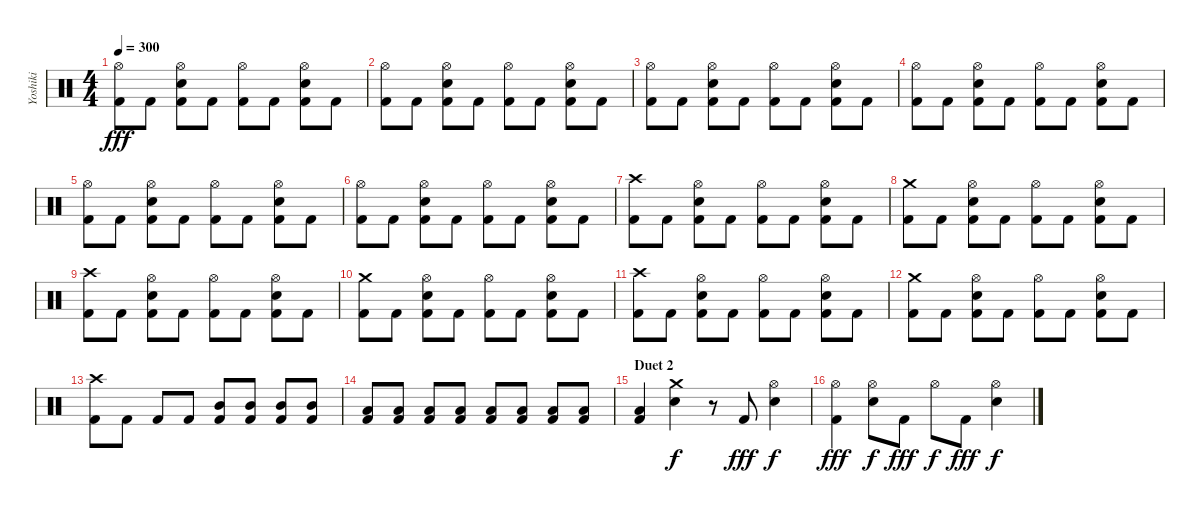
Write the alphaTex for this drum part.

\track ("Yoshiki" "Yoshiki") {instrument percussion}
\staff {score}
\articulation defaults
\ts (4 4)
\tempo 300
\clef neutral
\ks c
("Hi-Hat (open)" "Kick (hit) 2").8{dy fff} "Kick (hit) 2".8 ("Hi-Hat (open)" "Snare (hit) 2" "Kick (hit) 2").8 "Kick (hit) 2".8 ("Hi-Hat (open)" "Kick (hit) 2").8 "Kick (hit) 2".8 ("Hi-Hat (open)" "Snare (hit) 2" "Kick (hit) 2").8 "Kick (hit) 2".8 |
("Hi-Hat (open)" "Kick (hit) 2").8 "Kick (hit) 2".8 ("Hi-Hat (open)" "Snare (hit) 2" "Kick (hit) 2").8 "Kick (hit) 2".8 ("Hi-Hat (open)" "Kick (hit) 2").8 "Kick (hit) 2".8 ("Hi-Hat (open)" "Snare (hit) 2" "Kick (hit) 2").8 "Kick (hit) 2".8 |
("Hi-Hat (open)" "Kick (hit) 2").8 "Kick (hit) 2".8 ("Hi-Hat (open)" "Snare (hit) 2" "Kick (hit) 2").8 "Kick (hit) 2".8 ("Hi-Hat (open)" "Kick (hit) 2").8 "Kick (hit) 2".8 ("Hi-Hat (open)" "Snare (hit) 2" "Kick (hit) 2").8 "Kick (hit) 2".8 |
("Hi-Hat (open)" "Kick (hit) 2").8 "Kick (hit) 2".8 ("Hi-Hat (open)" "Snare (hit) 2" "Kick (hit) 2").8 "Kick (hit) 2".8 ("Hi-Hat (open)" "Kick (hit) 2").8 "Kick (hit) 2".8 ("Hi-Hat (open)" "Snare (hit) 2" "Kick (hit) 2").8 "Kick (hit) 2".8 |
("Hi-Hat (open)" "Kick (hit) 2").8 "Kick (hit) 2".8 ("Hi-Hat (open)" "Snare (hit) 2" "Kick (hit) 2").8 "Kick (hit) 2".8 ("Hi-Hat (open)" "Kick (hit) 2").8 "Kick (hit) 2".8 ("Hi-Hat (open)" "Snare (hit) 2" "Kick (hit) 2").8 "Kick (hit) 2".8 |
("Hi-Hat (open)" "Kick (hit) 2").8 "Kick (hit) 2".8 ("Hi-Hat (open)" "Snare (hit) 2" "Kick (hit) 2").8 "Kick (hit) 2".8 ("Hi-Hat (open)" "Kick (hit) 2").8 "Kick (hit) 2".8 ("Hi-Hat (open)" "Snare (hit) 2" "Kick (hit) 2").8 "Kick (hit) 2".8 |
("Crash high (hit)" "Kick (hit) 2").8 "Kick (hit) 2".8 ("Hi-Hat (open)" "Snare (hit) 2" "Kick (hit) 2").8 "Kick (hit) 2".8 ("Hi-Hat (open)" "Kick (hit) 2").8 "Kick (hit) 2".8 ("Hi-Hat (open)" "Snare (hit) 2" "Kick (hit) 2").8 "Kick (hit) 2".8 |
("Crash medium (hit)" "Kick (hit) 2").8 "Kick (hit) 2".8 ("Hi-Hat (open)" "Snare (hit) 2" "Kick (hit) 2").8 "Kick (hit) 2".8 ("Hi-Hat (open)" "Kick (hit) 2").8 "Kick (hit) 2".8 ("Hi-Hat (open)" "Snare (hit) 2" "Kick (hit) 2").8 "Kick (hit) 2".8 |
("Crash high (hit)" "Kick (hit) 2").8 "Kick (hit) 2".8 ("Hi-Hat (open)" "Snare (hit) 2" "Kick (hit) 2").8 "Kick (hit) 2".8 ("Hi-Hat (open)" "Kick (hit) 2").8 "Kick (hit) 2".8 ("Hi-Hat (open)" "Snare (hit) 2" "Kick (hit) 2").8 "Kick (hit) 2".8 |
("Crash medium (hit)" "Kick (hit) 2").8 "Kick (hit) 2".8 ("Hi-Hat (open)" "Snare (hit) 2" "Kick (hit) 2").8 "Kick (hit) 2".8 ("Hi-Hat (open)" "Kick (hit) 2").8 "Kick (hit) 2".8 ("Hi-Hat (open)" "Snare (hit) 2" "Kick (hit) 2").8 "Kick (hit) 2".8 |
("Crash high (hit)" "Kick (hit) 2").8 "Kick (hit) 2".8 ("Hi-Hat (open)" "Snare (hit) 2" "Kick (hit) 2").8 "Kick (hit) 2".8 ("Hi-Hat (open)" "Kick (hit) 2").8 "Kick (hit) 2".8 ("Hi-Hat (open)" "Snare (hit) 2" "Kick (hit) 2").8 "Kick (hit) 2".8 |
("Crash medium (hit)" "Kick (hit) 2").8 "Kick (hit) 2".8 ("Hi-Hat (open)" "Snare (hit) 2" "Kick (hit) 2").8 "Kick (hit) 2".8 ("Hi-Hat (open)" "Kick (hit) 2").8 "Kick (hit) 2".8 ("Hi-Hat (open)" "Snare (hit) 2" "Kick (hit) 2").8 "Kick (hit) 2".8 |
("Crash high (hit)" "Kick (hit) 2").8 "Kick (hit) 2".8 "Kick (hit) 2".8 "Kick (hit) 2".8 ("Mid Tom (hit)" "Kick (hit) 2").8 ("Mid Tom (hit)" "Kick (hit) 2").8 ("Mid Tom (hit)" "Kick (hit) 2").8 ("Mid Tom (hit)" "Kick (hit) 2").8 |
("Low Floor Tom (hit)" "Kick (hit) 2").8 ("Low Floor Tom (hit)" "Kick (hit) 2").8 ("Low Floor Tom (hit)" "Kick (hit) 2").8 ("Low Floor Tom (hit)" "Kick (hit) 2").8 ("Low Floor Tom (hit)" "Kick (hit) 2").8 ("Low Floor Tom (hit)" "Kick (hit) 2").8 ("Low Floor Tom (hit)" "Kick (hit) 2").8 ("Low Floor Tom (hit)" "Kick (hit) 2").8 |
\section ("" "Duet 2")
("Low Floor Tom (hit)" "Kick (hit) 2").4 ("Crash medium (hit)" "Snare (hit) 2").4{dy f} r.8 "Kick (hit) 2".8{dy fff} ("Hi-Hat (open)" "Snare (hit) 2").4{dy f} |
("Hi-Hat (open)" "Kick (hit) 2").4{dy fff} ("Hi-Hat (open)" "Snare (hit) 2").8{dy f} "Kick (hit) 2".8{dy fff} "Hi-Hat (open)".8{dy f} "Kick (hit) 2".8{dy fff} ("Hi-Hat (open)" "Snare (hit) 2").4{dy f}
